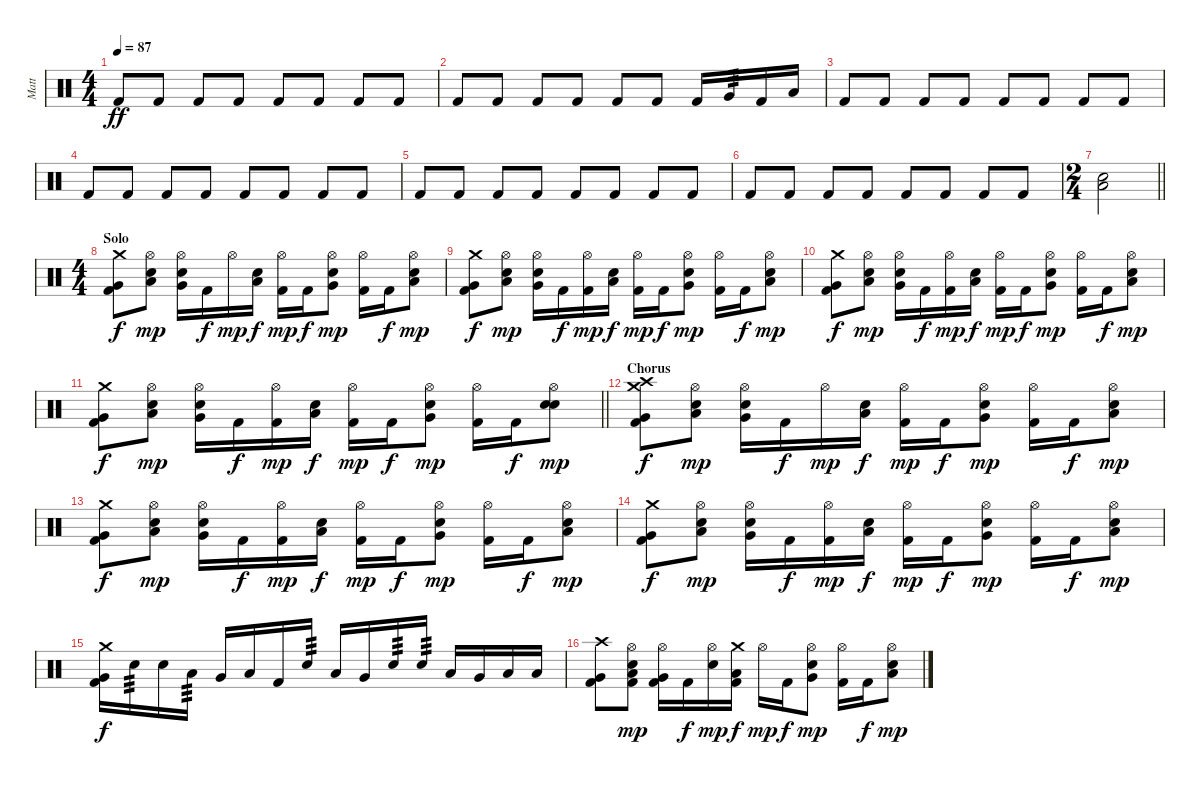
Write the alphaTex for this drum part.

\track ("Matt" "Matt") {instrument percussion}
\staff {score}
\articulation defaults
\ts (4 4)
\tempo 87
\clef neutral
\ks c "Kick (hit) 2".8{dy ff} "Kick (hit) 2".8 "Kick (hit) 2".8 "Kick (hit) 2".8 "Kick (hit) 2".8 "Kick (hit) 2".8 "Kick (hit) 2".8 "Kick (hit) 2".8
|
"Kick (hit) 2".8 "Kick (hit) 2".8 "Kick (hit) 2".8 "Kick (hit) 2".8 "Kick (hit) 2".8 "Kick (hit) 2".8 "Kick (hit) 2".16 "Very Low Tom (hit)".16{tp 3} "Kick (hit) 2".16 "Low Floor Tom (hit)".16 |
"Kick (hit) 2".8 "Kick (hit) 2".8 "Kick (hit) 2".8 "Kick (hit) 2".8 "Kick (hit) 2".8 "Kick (hit) 2".8 "Kick (hit) 2".8 "Kick (hit) 2".8 |
"Kick (hit) 2".8 "Kick (hit) 2".8 "Kick (hit) 2".8 "Kick (hit) 2".8 "Kick (hit) 2".8 "Kick (hit) 2".8 "Kick (hit) 2".8 "Kick (hit) 2".8 |
"Kick (hit) 2".8 "Kick (hit) 2".8 "Kick (hit) 2".8 "Kick (hit) 2".8 "Kick (hit) 2".8 "Kick (hit) 2".8 "Kick (hit) 2".8 "Kick (hit) 2".8 |
"Kick (hit) 2".8 "Kick (hit) 2".8 "Kick (hit) 2".8 "Kick (hit) 2".8 "Kick (hit) 2".8 "Kick (hit) 2".8 "Kick (hit) 2".8 "Kick (hit) 2".8 |
\ts (2 4)
\barLineRight lightlight
("Low Tom (hit)" "Snare (hit) 2").2 |
\ts (4 4)
\section ("" "Solo")
("Crash medium (hit)" "Very Low Tom (hit)" "Kick (hit) 2").8{dy f} ("Hi-Hat (open)" "Low Tom (hit)" "Snare (hit) 2").8{dy mp} ("Hi-Hat (open)" "Very Low Tom (hit)" "Snare (hit) 2").16 "Kick (hit) 2".16{dy f} "Hi-Hat (open)".16{dy mp} ("Low Tom (hit)" "Snare (hit) 2").16{dy f} ("Hi-Hat (open)" "Kick (hit) 2").16{dy mp} "Kick (hit) 2".16{dy f} ("Hi-Hat (open)" "Very Low Tom (hit)" "Snare (hit) 2").8{dy mp} ("Hi-Hat (open)" "Kick (hit) 2").16 "Kick (hit) 2".16{dy f} ("Hi-Hat (open)" "Low Tom (hit)" "Snare (hit) 2").8{dy mp} |
("Crash medium (hit)" "Very Low Tom (hit)" "Kick (hit) 2").8{dy f} ("Hi-Hat (open)" "Low Tom (hit)" "Snare (hit) 2").8{dy mp} ("Hi-Hat (open)" "Very Low Tom (hit)" "Snare (hit) 2").16 "Kick (hit) 2".16{dy f} ("Hi-Hat (open)" "Kick (hit) 2").16{dy mp} ("Low Tom (hit)" "Snare (hit) 2").16{dy f} ("Hi-Hat (open)" "Kick (hit) 2").16{dy mp} "Kick (hit) 2".16{dy f} ("Hi-Hat (open)" "Very Low Tom (hit)" "Snare (hit) 2").8{dy mp} ("Hi-Hat (open)" "Kick (hit) 2").16 "Kick (hit) 2".16{dy f} ("Hi-Hat (open)" "Low Tom (hit)" "Snare (hit) 2").8{dy mp} |
("Crash medium (hit)" "Very Low Tom (hit)" "Kick (hit) 2").8{dy f} ("Hi-Hat (open)" "Low Tom (hit)" "Snare (hit) 2").8{dy mp} ("Hi-Hat (open)" "Very Low Tom (hit)" "Snare (hit) 2").16 "Kick (hit) 2".16{dy f} ("Hi-Hat (open)" "Kick (hit) 2").16{dy mp} ("Low Tom (hit)" "Snare (hit) 2").16{dy f} ("Hi-Hat (open)" "Kick (hit) 2").16{dy mp} "Kick (hit) 2".16{dy f} ("Hi-Hat (open)" "Very Low Tom (hit)" "Snare (hit) 2").8{dy mp} ("Hi-Hat (open)" "Kick (hit) 2").16 "Kick (hit) 2".16{dy f} ("Hi-Hat (open)" "Low Tom (hit)" "Snare (hit) 2").8{dy mp} |
\barLineRight lightlight
("Crash medium (hit)" "Very Low Tom (hit)" "Kick (hit) 2").8{dy f} ("Hi-Hat (open)" "Low Tom (hit)" "Snare (hit) 2").8{dy mp} ("Hi-Hat (open)" "Very Low Tom (hit)" "Snare (hit) 2").16 "Kick (hit) 2".16{dy f} ("Hi-Hat (open)" "Kick (hit) 2").16{dy mp} ("Low Tom (hit)" "Snare (hit) 2").16{dy f} ("Hi-Hat (open)" "Kick (hit) 2").16{dy mp} "Kick (hit) 2".16{dy f} ("Hi-Hat (open)" "Very Low Tom (hit)" "Snare (hit) 2").8{dy mp} ("Hi-Hat (open)" "Kick (hit) 2").16 "Kick (hit) 2".16{dy f} ("Hi-Hat (open)" "Snare (hit) 2" "Snare (hit) 2").8{dy mp} |
\section ("" "Chorus")
("Crash medium (hit)" "Very Low Tom (hit)" "Crash high (hit)" "Kick (hit) 2").8{dy f} ("Hi-Hat (open)" "Low Tom (hit)" "Snare (hit) 2").8{dy mp} ("Hi-Hat (open)" "Very Low Tom (hit)" "Snare (hit) 2").16 "Kick (hit) 2".16{dy f} "Hi-Hat (open)".16{dy mp} ("Low Tom (hit)" "Snare (hit) 2").16{dy f} ("Hi-Hat (open)" "Kick (hit) 2").16{dy mp} "Kick (hit) 2".16{dy f} ("Hi-Hat (open)" "Very Low Tom (hit)" "Snare (hit) 2").8{dy mp} ("Hi-Hat (open)" "Kick (hit) 2").16 "Kick (hit) 2".16{dy f} ("Hi-Hat (open)" "Low Tom (hit)" "Snare (hit) 2").8{dy mp} |
("Crash medium (hit)" "Very Low Tom (hit)" "Kick (hit) 2").8{dy f} ("Hi-Hat (open)" "Low Tom (hit)" "Snare (hit) 2").8{dy mp} ("Hi-Hat (open)" "Very Low Tom (hit)" "Snare (hit) 2").16 "Kick (hit) 2".16{dy f} ("Hi-Hat (open)" "Kick (hit) 2").16{dy mp} ("Low Tom (hit)" "Snare (hit) 2").16{dy f} ("Hi-Hat (open)" "Kick (hit) 2").16{dy mp} "Kick (hit) 2".16{dy f} ("Hi-Hat (open)" "Very Low Tom (hit)" "Snare (hit) 2").8{dy mp} ("Hi-Hat (open)" "Kick (hit) 2").16 "Kick (hit) 2".16{dy f} ("Hi-Hat (open)" "Low Tom (hit)" "Snare (hit) 2").8{dy mp} |
("Crash medium (hit)" "Very Low Tom (hit)" "Kick (hit) 2").8{dy f} ("Hi-Hat (open)" "Low Tom (hit)" "Snare (hit) 2").8{dy mp} ("Hi-Hat (open)" "Very Low Tom (hit)" "Snare (hit) 2").16 "Kick (hit) 2".16{dy f} ("Hi-Hat (open)" "Kick (hit) 2").16{dy mp} ("Low Tom (hit)" "Snare (hit) 2").16{dy f} ("Hi-Hat (open)" "Kick (hit) 2").16{dy mp} "Kick (hit) 2".16{dy f} ("Hi-Hat (open)" "Very Low Tom (hit)" "Snare (hit) 2").8{dy mp} ("Hi-Hat (open)" "Kick (hit) 2").16 "Kick (hit) 2".16{dy f} ("Hi-Hat (open)" "Low Tom (hit)" "Snare (hit) 2").8{dy mp} |
("Crash medium (hit)" "Very Low Tom (hit)" "Kick (hit) 2").16{dy f} "Snare (hit) 2".16{tp 3} "Snare (hit) 2".16 "Low Tom (hit)".16{tp 3} "Very Low Tom (hit)".16 "Low Floor Tom (hit)".16 "Kick (hit) 2".16 "Snare (hit) 2".16{tp 3} "Low Tom (hit)".16 "Very Low Tom (hit)".16 "Snare (hit) 2".16{tp 3} "Snare (hit) 2".16{tp 3} "Low Tom (hit)".16 "Very Low Tom (hit)".16 "Low Floor Tom (hit)".16 "Low Floor Tom (hit)".16 |
("Crash high (hit)" "Very Low Tom (hit)" "Kick (hit) 2").8 ("Hi-Hat (open)" "Low Tom (hit)" "Snare (hit) 2" "Kick (hit) 2").8{dy mp} ("Hi-Hat (open)" "Very Low Tom (hit)" "Kick (hit) 2").16 "Kick (hit) 2".16{dy f} ("Hi-Hat (open)" "Snare (hit) 2").16{dy mp} ("Crash medium (hit)" "Low Tom (hit)" "Kick (hit) 2").16{dy f} "Hi-Hat (open)".16{dy mp} "Kick (hit) 2".16{dy f} ("Hi-Hat (open)" "Very Low Tom (hit)" "Snare (hit) 2").8{dy mp} ("Hi-Hat (open)" "Kick (hit) 2").16 "Kick (hit) 2".16{dy f} ("Hi-Hat (open)" "Low Tom (hit)" "Snare (hit) 2").8{dy mp}
